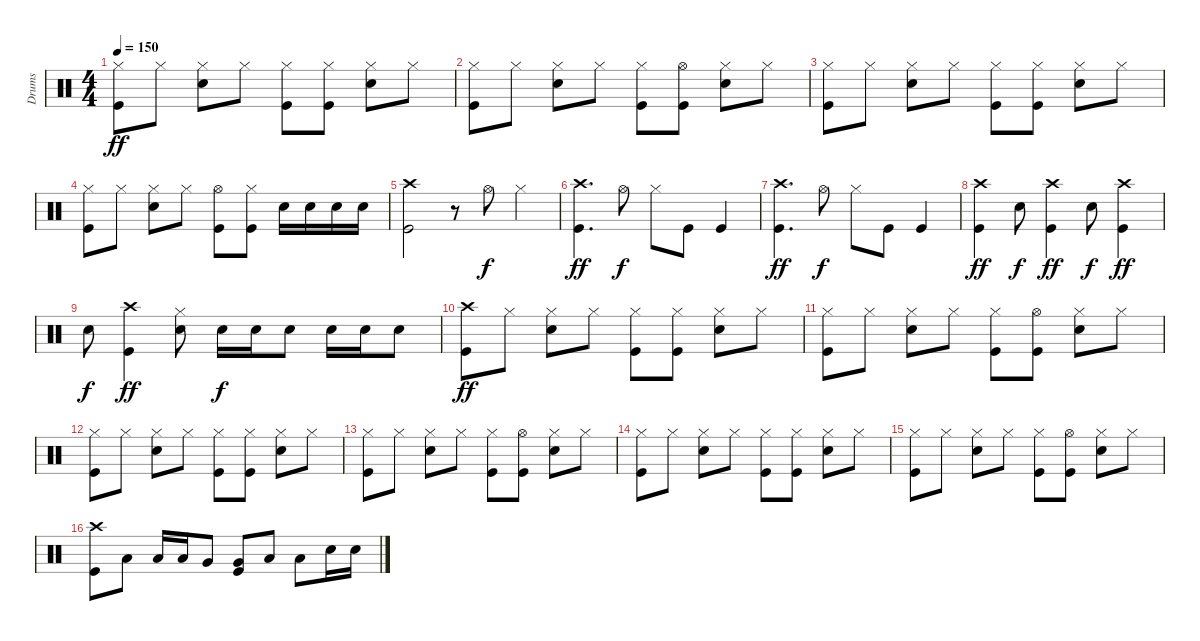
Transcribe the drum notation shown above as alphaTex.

\track ("Drums" "Drums") {instrument percussion}
\staff {score}
\articulation defaults
\ts (4 4)
\tempo 150
\clef neutral
\ks c
("Hi-Hat (closed)" "Kick (hit)").8{dy ff} "Hi-Hat (closed)".8 ("Hi-Hat (closed)" "Snare (hit) 2").8 "Hi-Hat (closed)".8 ("Hi-Hat (closed)" "Kick (hit)").8 ("Hi-Hat (closed)" "Kick (hit)").8 ("Hi-Hat (closed)" "Snare (hit) 2").8 "Hi-Hat (closed)".8 |
("Hi-Hat (closed)" "Kick (hit)").8 "Hi-Hat (closed)".8 ("Hi-Hat (closed)" "Snare (hit) 2").8 "Hi-Hat (closed)".8 ("Hi-Hat (closed)" "Kick (hit)").8 ("Hi-Hat (open)" "Kick (hit)").8 ("Hi-Hat (closed)" "Snare (hit) 2").8 "Hi-Hat (closed)".8 |
("Hi-Hat (closed)" "Kick (hit)").8 "Hi-Hat (closed)".8 ("Hi-Hat (closed)" "Snare (hit) 2").8 "Hi-Hat (closed)".8 ("Hi-Hat (closed)" "Kick (hit)").8 ("Hi-Hat (closed)" "Kick (hit)").8 ("Hi-Hat (closed)" "Snare (hit) 2").8 "Hi-Hat (closed)".8 |
("Hi-Hat (closed)" "Kick (hit)").8 "Hi-Hat (closed)".8 ("Hi-Hat (closed)" "Snare (hit) 2").8 "Hi-Hat (closed)".8 ("Hi-Hat (open)" "Kick (hit)").8 ("Hi-Hat (closed)" "Kick (hit)").8 "Snare (hit) 2".16 "Snare (hit) 2".16 "Snare (hit) 2".16 "Snare (hit) 2".16 |
("Crash high (hit)" "Kick (hit)").2 r.8 "Hi-Hat (open)".8{dy f} "Hi-Hat (closed)".4 |
("Crash high (hit)" "Kick (hit)").4{d dy ff} "Hi-Hat (open)".8{dy f} "Hi-Hat (closed)".8 "Kick (hit)".8 "Kick (hit)".4 |
("Crash high (hit)" "Kick (hit)").4{d dy ff} "Hi-Hat (open)".8{dy f} "Hi-Hat (closed)".8 "Kick (hit)".8 "Kick (hit)".4 |
("Crash high (hit)" "Kick (hit)").4{dy ff} "Snare (hit) 2".8{dy f} ("Crash high (hit)" "Kick (hit)").4{dy ff} "Snare (hit) 2".8{dy f} ("Crash high (hit)" "Kick (hit)").4{dy ff} |
"Snare (hit) 2".8{dy f} ("Crash high (hit)" "Kick (hit)").4{dy ff} ("Hi-Hat (closed)" "Snare (hit) 2").8 "Snare (hit) 2".16{dy f} "Snare (hit) 2".16 "Snare (hit) 2".8 "Snare (hit) 2".16 "Snare (hit) 2".16 "Snare (hit) 2".8 |
("Crash high (hit)" "Kick (hit)").8{dy ff} "Hi-Hat (closed)".8 ("Hi-Hat (closed)" "Snare (hit) 2").8 "Hi-Hat (closed)".8 ("Hi-Hat (closed)" "Kick (hit)").8 ("Hi-Hat (closed)" "Kick (hit)").8 ("Hi-Hat (closed)" "Snare (hit) 2").8 "Hi-Hat (closed)".8 |
("Hi-Hat (closed)" "Kick (hit)").8 "Hi-Hat (closed)".8 ("Hi-Hat (closed)" "Snare (hit) 2").8 "Hi-Hat (closed)".8 ("Hi-Hat (closed)" "Kick (hit)").8 ("Hi-Hat (open)" "Kick (hit)").8 ("Hi-Hat (closed)" "Snare (hit) 2").8 "Hi-Hat (closed)".8 |
("Hi-Hat (closed)" "Kick (hit)").8 "Hi-Hat (closed)".8 ("Hi-Hat (closed)" "Snare (hit) 2").8 "Hi-Hat (closed)".8 ("Hi-Hat (closed)" "Kick (hit)").8 ("Hi-Hat (closed)" "Kick (hit)").8 ("Hi-Hat (closed)" "Snare (hit) 2").8 "Hi-Hat (closed)".8 |
("Hi-Hat (closed)" "Kick (hit)").8 "Hi-Hat (closed)".8 ("Hi-Hat (closed)" "Snare (hit) 2").8 "Hi-Hat (closed)".8 ("Hi-Hat (closed)" "Kick (hit)").8 ("Hi-Hat (open)" "Kick (hit)").8 ("Hi-Hat (closed)" "Snare (hit) 2").8 "Hi-Hat (closed)".8 |
("Hi-Hat (closed)" "Kick (hit)").8 "Hi-Hat (closed)".8 ("Hi-Hat (closed)" "Snare (hit) 2").8 "Hi-Hat (closed)".8 ("Hi-Hat (closed)" "Kick (hit)").8 ("Hi-Hat (closed)" "Kick (hit)").8 ("Hi-Hat (closed)" "Snare (hit) 2").8 "Hi-Hat (closed)".8 |
("Hi-Hat (closed)" "Kick (hit)").8 "Hi-Hat (closed)".8 ("Hi-Hat (closed)" "Snare (hit) 2").8 "Hi-Hat (closed)".8 ("Hi-Hat (closed)" "Kick (hit)").8 ("Hi-Hat (open)" "Kick (hit)").8 ("Hi-Hat (closed)" "Snare (hit) 2").8 "Hi-Hat (closed)".8 |
("Crash high (hit)" "Kick (hit)").8 "Low Tom (hit)".8 "Low Tom (hit)".16 "Low Tom (hit)".16 "Very Low Tom (hit)".8 ("Very Low Tom (hit)" "Kick (hit)").8 "Low Floor Tom (hit)".8 "Low Floor Tom (hit)".8 "Snare (hit) 2".16 "Snare (hit) 2".16
